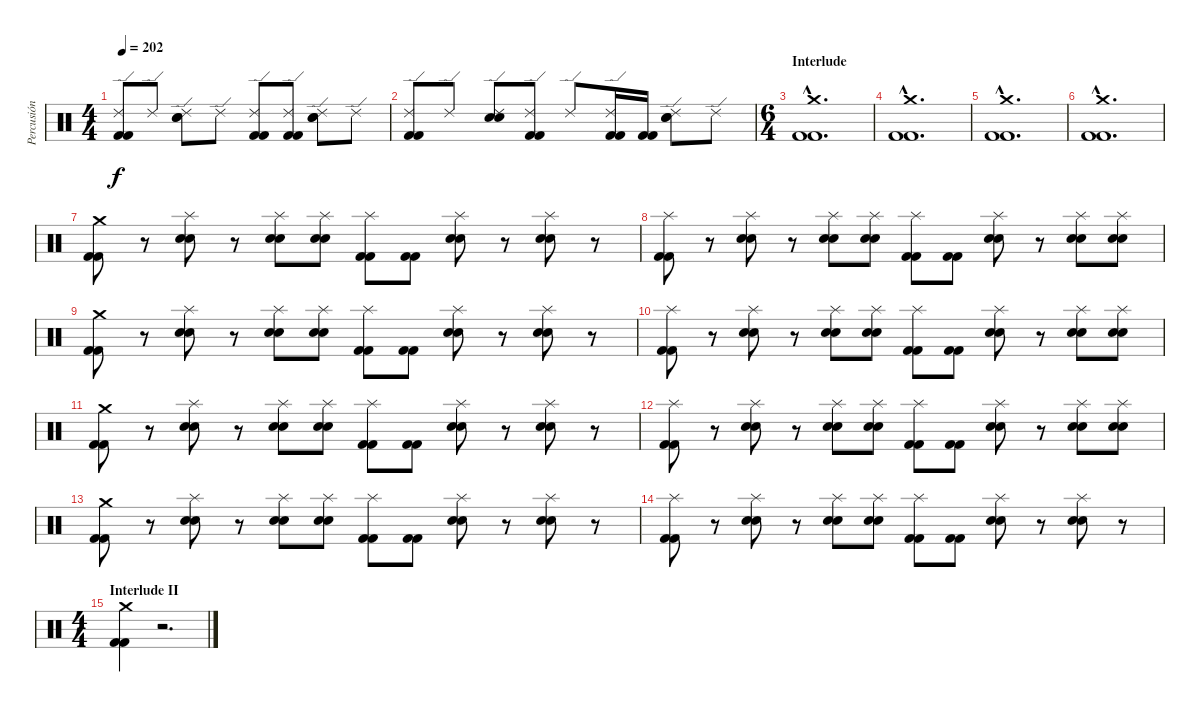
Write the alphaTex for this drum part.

\track ("Percusión" "Percusión") {instrument percussion}
\staff {score}
\articulation defaults
\ts (4 4)
\tempo 202
\clef neutral
\ks c
("Ride (edge) 2" "Kick (hit) 2" "Kick (hit) 2").8{dy f} "Ride (edge) 2".8 ("Ride (edge) 2" "Snare (hit) 2" "Snare (hit) 2").8 "Ride (edge) 2".8 ("Ride (edge) 2" "Kick (hit) 2" "Kick (hit) 2").8 ("Ride (edge) 2" "Kick (hit) 2" "Kick (hit) 2").8 ("Ride (edge) 2" "Snare (hit) 2" "Snare (hit) 2").8 "Ride (edge) 2".8 |
("Ride (edge) 2" "Kick (hit) 2" "Kick (hit) 2").8 "Ride (edge) 2".8 ("Ride (edge) 2" "Snare (hit) 2" "Snare (hit) 2").8 ("Ride (edge) 2" "Kick (hit) 2" "Kick (hit) 2").8 "Ride (edge) 2".8 ("Ride (edge) 2" "Kick (hit) 2" "Kick (hit) 2").16 ("Kick (hit) 2" "Kick (hit) 2").16 ("Ride (edge) 2" "Snare (hit) 2" "Snare (hit) 2").8 "Ride (edge) 2".8 |
\ts (6 4)
\section ("" "Interlude")
("Crash medium (hit)"{hac} "Kick (hit) 2"{hac} "Kick (hit) 2"{hac}).1{d} |
("Crash medium (hit)"{hac} "Kick (hit) 2"{hac} "Kick (hit) 2"{hac}).1{d} |
("Crash medium (hit)"{hac} "Kick (hit) 2"{hac} "Kick (hit) 2"{hac}).1{d} |
("Crash medium (hit)"{hac} "Kick (hit) 2"{hac} "Kick (hit) 2"{hac}).1{d} |
("Crash medium (hit)" "Kick (hit) 2" "Kick (hit) 2").8 r.8 ("Splash (hit)" "Snare (hit) 2" "Snare (hit) 2").8 r.8 ("Splash (hit)" "Snare (hit) 2" "Snare (hit) 2").8 ("Splash (hit)" "Snare (hit) 2" "Snare (hit) 2").8 ("Splash (hit)" "Kick (hit) 2" "Kick (hit) 2").8 ("Kick (hit) 2" "Kick (hit) 2").8 ("Splash (hit)" "Snare (hit) 2" "Snare (hit) 2").8 r.8 ("Splash (hit)" "Snare (hit) 2" "Snare (hit) 2").8 r.8 |
("Splash (hit)" "Kick (hit) 2" "Kick (hit) 2").8 r.8 ("Splash (hit)" "Snare (hit) 2" "Snare (hit) 2").8 r.8 ("Splash (hit)" "Snare (hit) 2" "Snare (hit) 2").8 ("Splash (hit)" "Snare (hit) 2" "Snare (hit) 2").8 ("Splash (hit)" "Kick (hit) 2" "Kick (hit) 2").8 ("Kick (hit) 2" "Kick (hit) 2").8 ("Splash (hit)" "Snare (hit) 2" "Snare (hit) 2").8 r.8 ("Splash (hit)" "Snare (hit) 2" "Snare (hit) 2").8 ("Splash (hit)" "Snare (hit) 2" "Snare (hit) 2").8 |
("Crash medium (hit)" "Kick (hit) 2" "Kick (hit) 2").8 r.8 ("Splash (hit)" "Snare (hit) 2" "Snare (hit) 2").8 r.8 ("Splash (hit)" "Snare (hit) 2" "Snare (hit) 2").8 ("Splash (hit)" "Snare (hit) 2" "Snare (hit) 2").8 ("Splash (hit)" "Kick (hit) 2" "Kick (hit) 2").8 ("Kick (hit) 2" "Kick (hit) 2").8 ("Splash (hit)" "Snare (hit) 2" "Snare (hit) 2").8 r.8 ("Splash (hit)" "Snare (hit) 2" "Snare (hit) 2").8 r.8 |
("Splash (hit)" "Kick (hit) 2" "Kick (hit) 2").8 r.8 ("Splash (hit)" "Snare (hit) 2" "Snare (hit) 2").8 r.8 ("Splash (hit)" "Snare (hit) 2" "Snare (hit) 2").8 ("Splash (hit)" "Snare (hit) 2" "Snare (hit) 2").8 ("Splash (hit)" "Kick (hit) 2" "Kick (hit) 2").8 ("Kick (hit) 2" "Kick (hit) 2").8 ("Splash (hit)" "Snare (hit) 2" "Snare (hit) 2").8 r.8 ("Splash (hit)" "Snare (hit) 2" "Snare (hit) 2").8 ("Splash (hit)" "Snare (hit) 2" "Snare (hit) 2").8 |
("Crash medium (hit)" "Kick (hit) 2" "Kick (hit) 2").8 r.8 ("Splash (hit)" "Snare (hit) 2" "Snare (hit) 2").8 r.8 ("Splash (hit)" "Snare (hit) 2" "Snare (hit) 2").8 ("Splash (hit)" "Snare (hit) 2" "Snare (hit) 2").8 ("Splash (hit)" "Kick (hit) 2" "Kick (hit) 2").8 ("Kick (hit) 2" "Kick (hit) 2").8 ("Splash (hit)" "Snare (hit) 2" "Snare (hit) 2").8 r.8 ("Splash (hit)" "Snare (hit) 2" "Snare (hit) 2").8 r.8 |
("Splash (hit)" "Kick (hit) 2" "Kick (hit) 2").8 r.8 ("Splash (hit)" "Snare (hit) 2" "Snare (hit) 2").8 r.8 ("Splash (hit)" "Snare (hit) 2" "Snare (hit) 2").8 ("Splash (hit)" "Snare (hit) 2" "Snare (hit) 2").8 ("Splash (hit)" "Kick (hit) 2" "Kick (hit) 2").8 ("Kick (hit) 2" "Kick (hit) 2").8 ("Splash (hit)" "Snare (hit) 2" "Snare (hit) 2").8 r.8 ("Splash (hit)" "Snare (hit) 2" "Snare (hit) 2").8 ("Splash (hit)" "Snare (hit) 2" "Snare (hit) 2").8 |
("Crash medium (hit)" "Kick (hit) 2" "Kick (hit) 2").8 r.8 ("Splash (hit)" "Snare (hit) 2" "Snare (hit) 2").8 r.8 ("Splash (hit)" "Snare (hit) 2" "Snare (hit) 2").8 ("Splash (hit)" "Snare (hit) 2" "Snare (hit) 2").8 ("Splash (hit)" "Kick (hit) 2" "Kick (hit) 2").8 ("Kick (hit) 2" "Kick (hit) 2").8 ("Splash (hit)" "Snare (hit) 2" "Snare (hit) 2").8 r.8 ("Splash (hit)" "Snare (hit) 2" "Snare (hit) 2").8 r.8 |
("Splash (hit)" "Kick (hit) 2" "Kick (hit) 2").8 r.8 ("Splash (hit)" "Snare (hit) 2" "Snare (hit) 2").8 r.8 ("Splash (hit)" "Snare (hit) 2" "Snare (hit) 2").8 ("Splash (hit)" "Snare (hit) 2" "Snare (hit) 2").8 ("Splash (hit)" "Kick (hit) 2" "Kick (hit) 2").8 ("Kick (hit) 2" "Kick (hit) 2").8 ("Splash (hit)" "Snare (hit) 2" "Snare (hit) 2").8 r.8 ("Splash (hit)" "Snare (hit) 2" "Snare (hit) 2").8 r.8 |
\ts (4 4)
\section ("" "Interlude II")
("Crash medium (hit)" "Kick (hit) 2" "Kick (hit) 2").4 r.2{d}
